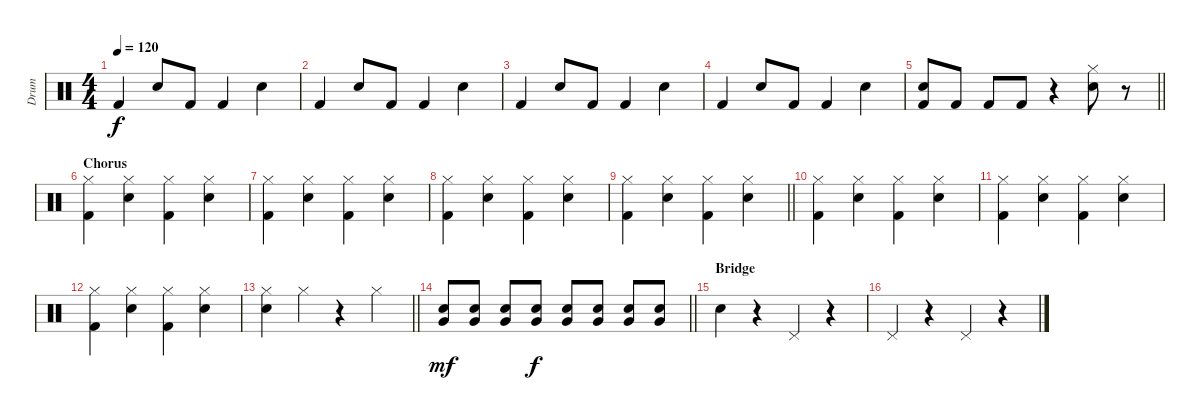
\track ("Drum" "Drum") {instrument percussion}
\staff {score}
\articulation defaults
\ts (4 4)
\tempo 120
\clef neutral
\ks c "Kick (hit) 2".4{dy f} "Electric Snare (hit)".8 "Kick (hit) 2".8 "Kick (hit) 2".4 "Electric Snare (hit)".4
|
"Kick (hit) 2".4 "Electric Snare (hit)".8 "Kick (hit) 2".8 "Kick (hit) 2".4 "Electric Snare (hit)".4 |
"Kick (hit) 2".4 "Electric Snare (hit)".8 "Kick (hit) 2".8 "Kick (hit) 2".4 "Electric Snare (hit)".4 |
"Kick (hit) 2".4 "Electric Snare (hit)".8 "Kick (hit) 2".8 "Kick (hit) 2".4 "Electric Snare (hit)".4 |
\barLineRight lightlight
("Electric Snare (hit)" "Kick (hit) 2").8 "Kick (hit) 2".8 "Kick (hit) 2".8 "Kick (hit) 2".8 r.4 ("Hi-Hat (closed)" "Electric Snare (hit)").8 r.8 |
\section ("" "Chorus")
("Hi-Hat (closed)" "Kick (hit) 2").4 ("Hi-Hat (closed)" "Electric Snare (hit)").4 ("Hi-Hat (closed)" "Kick (hit) 2").4 ("Hi-Hat (closed)" "Electric Snare (hit)").4 |
("Hi-Hat (closed)" "Kick (hit) 2").4 ("Hi-Hat (closed)" "Electric Snare (hit)").4 ("Hi-Hat (closed)" "Kick (hit) 2").4 ("Hi-Hat (closed)" "Electric Snare (hit)").4 |
("Hi-Hat (closed)" "Kick (hit) 2").4 ("Hi-Hat (closed)" "Electric Snare (hit)").4 ("Hi-Hat (closed)" "Kick (hit) 2").4 ("Hi-Hat (closed)" "Electric Snare (hit)").4 |
\barLineRight lightlight
("Hi-Hat (closed)" "Kick (hit) 2").4 ("Hi-Hat (closed)" "Electric Snare (hit)").4 ("Hi-Hat (closed)" "Kick (hit) 2").4 ("Hi-Hat (closed)" "Electric Snare (hit)").4 |
("Hi-Hat (closed)" "Kick (hit) 2").4 ("Hi-Hat (closed)" "Electric Snare (hit)").4 ("Hi-Hat (closed)" "Kick (hit) 2").4 ("Hi-Hat (closed)" "Electric Snare (hit)").4 |
("Hi-Hat (closed)" "Kick (hit) 2").4 ("Hi-Hat (closed)" "Electric Snare (hit)").4 ("Hi-Hat (closed)" "Kick (hit) 2").4 ("Hi-Hat (closed)" "Electric Snare (hit)").4 |
("Hi-Hat (closed)" "Kick (hit) 2").4 ("Hi-Hat (closed)" "Electric Snare (hit)").4 ("Hi-Hat (closed)" "Kick (hit) 2").4 ("Hi-Hat (closed)" "Electric Snare (hit)").4 |
\barLineRight lightlight
("Hi-Hat (closed)" "Electric Snare (hit)").4 "Hi-Hat (closed)".4 r.4 "Hi-Hat (closed)".4{volume 5} |
\barLineRight lightlight
("Very Low Tom (hit)" "Snare (hit) 2").8{dy mf volume 11} ("Very Low Tom (hit)" "Snare (hit) 2").8 ("Very Low Tom (hit)" "Snare (hit) 2").8 ("Very Low Tom (hit)" "Snare (hit) 2").8{dy f} ("Very Low Tom (hit)" "Snare (hit) 2").8 ("Very Low Tom (hit)" "Snare (hit) 2").8 ("Very Low Tom (hit)" "Snare (hit) 2").8 ("Very Low Tom (hit)" "Snare (hit) 2").8 |
\section ("" "Bridge")
"Snare (hit) 2".4{volume 13} r.4 "Pedal Hi-Hat (hit)".4 r.4 |
"Pedal Hi-Hat (hit)".4 r.4 "Pedal Hi-Hat (hit)".4 r.4
